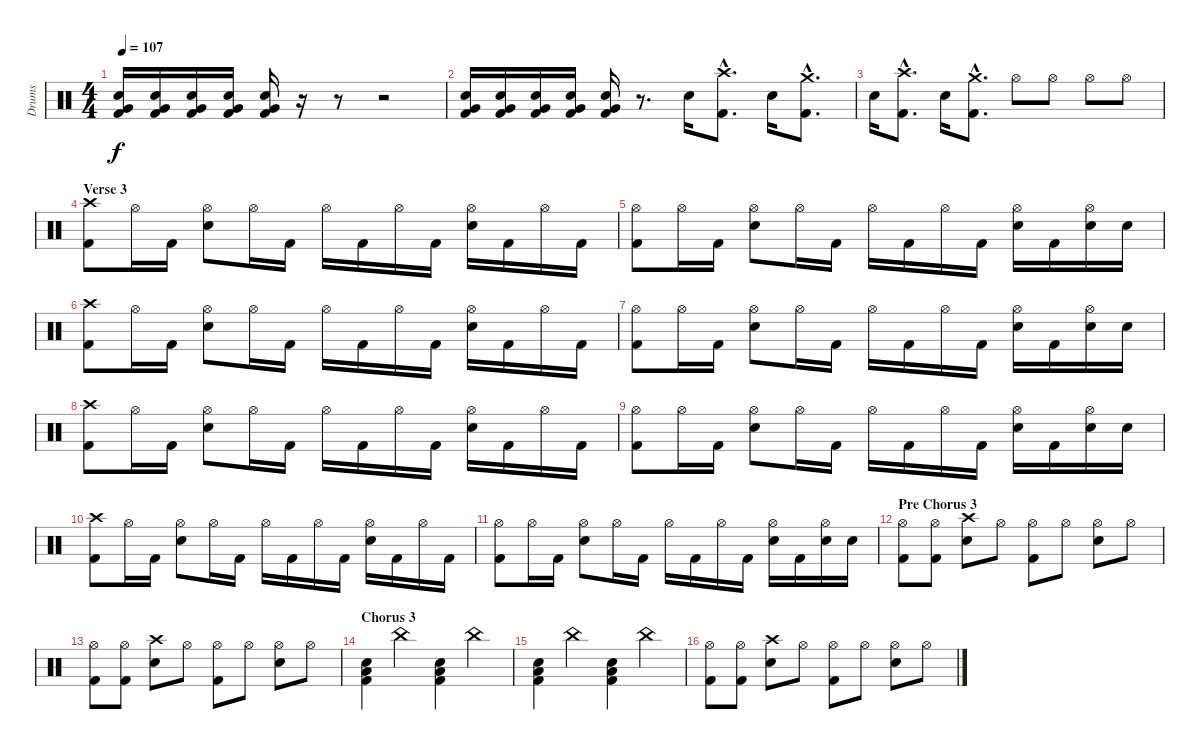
\track ("Drums" "Drums") {instrument percussion}
\staff {score}
\articulation defaults
\ts (4 4)
\tempo 107
\clef neutral
\ks c
("Electric Snare (hit)" "Very Low Tom (hit)" "Kick (hit) 2").16{dy f} ("Electric Snare (hit)" "Very Low Tom (hit)" "Kick (hit) 2").16 ("Electric Snare (hit)" "Very Low Tom (hit)" "Kick (hit) 2").16 ("Electric Snare (hit)" "Very Low Tom (hit)" "Kick (hit) 2").16 ("Electric Snare (hit)" "Very Low Tom (hit)" "Kick (hit) 2").16 r.16 r.8 r.2 |
("Electric Snare (hit)" "Very Low Tom (hit)" "Kick (hit) 2").16 ("Electric Snare (hit)" "Very Low Tom (hit)" "Kick (hit) 2").16 ("Electric Snare (hit)" "Very Low Tom (hit)" "Kick (hit) 2").16 ("Electric Snare (hit)" "Very Low Tom (hit)" "Kick (hit) 2").16 ("Electric Snare (hit)" "Very Low Tom (hit)" "Kick (hit) 2").16 r.8{d} "Electric Snare (hit)".16 ("Crash high (hit)"{hac} "Kick (hit) 2"{hac}).8{d} "Electric Snare (hit)".16 ("Crash medium (hit)"{hac} "Kick (hit) 2"{hac}).8{d} |
"Electric Snare (hit)".16 ("Crash high (hit)"{hac} "Kick (hit) 2"{hac}).8{d} "Electric Snare (hit)".16 ("Crash medium (hit)"{hac} "Kick (hit) 2"{hac}).8{d} "Hi-Hat (open)".8 "Hi-Hat (open)".8 "Hi-Hat (open)".8 "Hi-Hat (open)".8 |
\section ("" "Verse 3")
("Crash high (hit)" "Kick (hit) 2").8 "Hi-Hat (open)".16 "Kick (hit) 2".16 ("Hi-Hat (open)" "Electric Snare (hit)").8 "Hi-Hat (open)".16 "Kick (hit) 2".16 "Hi-Hat (open)".16 "Kick (hit) 2".16 "Hi-Hat (open)".16 "Kick (hit) 2".16 ("Hi-Hat (open)" "Electric Snare (hit)").16 "Kick (hit) 2".16 "Hi-Hat (open)".16 "Kick (hit) 2".16 |
("Hi-Hat (open)" "Kick (hit) 2").8 "Hi-Hat (open)".16 "Kick (hit) 2".16 ("Hi-Hat (open)" "Electric Snare (hit)").8 "Hi-Hat (open)".16 "Kick (hit) 2".16 "Hi-Hat (open)".16 "Kick (hit) 2".16 "Hi-Hat (open)".16 "Kick (hit) 2".16 ("Hi-Hat (open)" "Electric Snare (hit)").16 "Kick (hit) 2".16 ("Hi-Hat (open)" "Electric Snare (hit)").16 "Electric Snare (hit)".16 |
("Crash high (hit)" "Kick (hit) 2").8 "Hi-Hat (open)".16 "Kick (hit) 2".16 ("Hi-Hat (open)" "Electric Snare (hit)").8 "Hi-Hat (open)".16 "Kick (hit) 2".16 "Hi-Hat (open)".16 "Kick (hit) 2".16 "Hi-Hat (open)".16 "Kick (hit) 2".16 ("Hi-Hat (open)" "Electric Snare (hit)").16 "Kick (hit) 2".16 "Hi-Hat (open)".16 "Kick (hit) 2".16 |
("Hi-Hat (open)" "Kick (hit) 2").8 "Hi-Hat (open)".16 "Kick (hit) 2".16 ("Hi-Hat (open)" "Electric Snare (hit)").8 "Hi-Hat (open)".16 "Kick (hit) 2".16 "Hi-Hat (open)".16 "Kick (hit) 2".16 "Hi-Hat (open)".16 "Kick (hit) 2".16 ("Hi-Hat (open)" "Electric Snare (hit)").16 "Kick (hit) 2".16 ("Hi-Hat (open)" "Electric Snare (hit)").16 "Electric Snare (hit)".16 |
("Crash high (hit)" "Kick (hit) 2").8 "Hi-Hat (open)".16 "Kick (hit) 2".16 ("Hi-Hat (open)" "Electric Snare (hit)").8 "Hi-Hat (open)".16 "Kick (hit) 2".16 "Hi-Hat (open)".16 "Kick (hit) 2".16 "Hi-Hat (open)".16 "Kick (hit) 2".16 ("Hi-Hat (open)" "Electric Snare (hit)").16 "Kick (hit) 2".16 "Hi-Hat (open)".16 "Kick (hit) 2".16 |
("Hi-Hat (open)" "Kick (hit) 2").8 "Hi-Hat (open)".16 "Kick (hit) 2".16 ("Hi-Hat (open)" "Electric Snare (hit)").8 "Hi-Hat (open)".16 "Kick (hit) 2".16 "Hi-Hat (open)".16 "Kick (hit) 2".16 "Hi-Hat (open)".16 "Kick (hit) 2".16 ("Hi-Hat (open)" "Electric Snare (hit)").16 "Kick (hit) 2".16 ("Hi-Hat (open)" "Electric Snare (hit)").16 "Electric Snare (hit)".16 |
("Crash high (hit)" "Kick (hit) 2").8 "Hi-Hat (open)".16 "Kick (hit) 2".16 ("Hi-Hat (open)" "Electric Snare (hit)").8 "Hi-Hat (open)".16 "Kick (hit) 2".16 "Hi-Hat (open)".16 "Kick (hit) 2".16 "Hi-Hat (open)".16 "Kick (hit) 2".16 ("Hi-Hat (open)" "Electric Snare (hit)").16 "Kick (hit) 2".16 "Hi-Hat (open)".16 "Kick (hit) 2".16 |
("Hi-Hat (open)" "Kick (hit) 2").8 "Hi-Hat (open)".16 "Kick (hit) 2".16 ("Hi-Hat (open)" "Electric Snare (hit)").8 "Hi-Hat (open)".16 "Kick (hit) 2".16 "Hi-Hat (open)".16 "Kick (hit) 2".16 "Hi-Hat (open)".16 "Kick (hit) 2".16 ("Hi-Hat (open)" "Electric Snare (hit)").16 "Kick (hit) 2".16 ("Hi-Hat (open)" "Electric Snare (hit)").16 "Electric Snare (hit)".16 |
\section ("" "Pre Chorus 3")
("Hi-Hat (open)" "Kick (hit) 2").8 ("Hi-Hat (open)" "Kick (hit) 2").8 ("Crash high (hit)" "Electric Snare (hit)").8 "Hi-Hat (open)".8 ("Hi-Hat (open)" "Kick (hit) 2").8 "Hi-Hat (open)".8 ("Hi-Hat (open)" "Electric Snare (hit)").8 "Hi-Hat (open)".8 |
("Hi-Hat (open)" "Kick (hit) 2").8 ("Hi-Hat (open)" "Kick (hit) 2").8 ("Crash high (hit)" "Electric Snare (hit)").8 "Hi-Hat (open)".8 ("Hi-Hat (open)" "Kick (hit) 2").8 "Hi-Hat (open)".8 ("Hi-Hat (open)" "Electric Snare (hit)").8 "Hi-Hat (open)".8 |
\section ("" "Chorus 3")
("Electric Snare (hit)" "Low Floor Tom (hit)" "Kick (hit) 2").4 "China (hit)".4 ("Electric Snare (hit)" "Low Floor Tom (hit)" "Kick (hit) 2").4 "China (hit)".4 |
("Electric Snare (hit)" "Low Floor Tom (hit)" "Kick (hit) 2").4 "China (hit)".4 ("Electric Snare (hit)" "Low Floor Tom (hit)" "Kick (hit) 2").4 "China (hit)".4 |
("Hi-Hat (open)" "Kick (hit) 2").8 ("Hi-Hat (open)" "Kick (hit) 2").8 ("Crash high (hit)" "Electric Snare (hit)").8 "Hi-Hat (open)".8 ("Hi-Hat (open)" "Kick (hit) 2").8 "Hi-Hat (open)".8 ("Hi-Hat (open)" "Electric Snare (hit)").8 "Hi-Hat (open)".8
